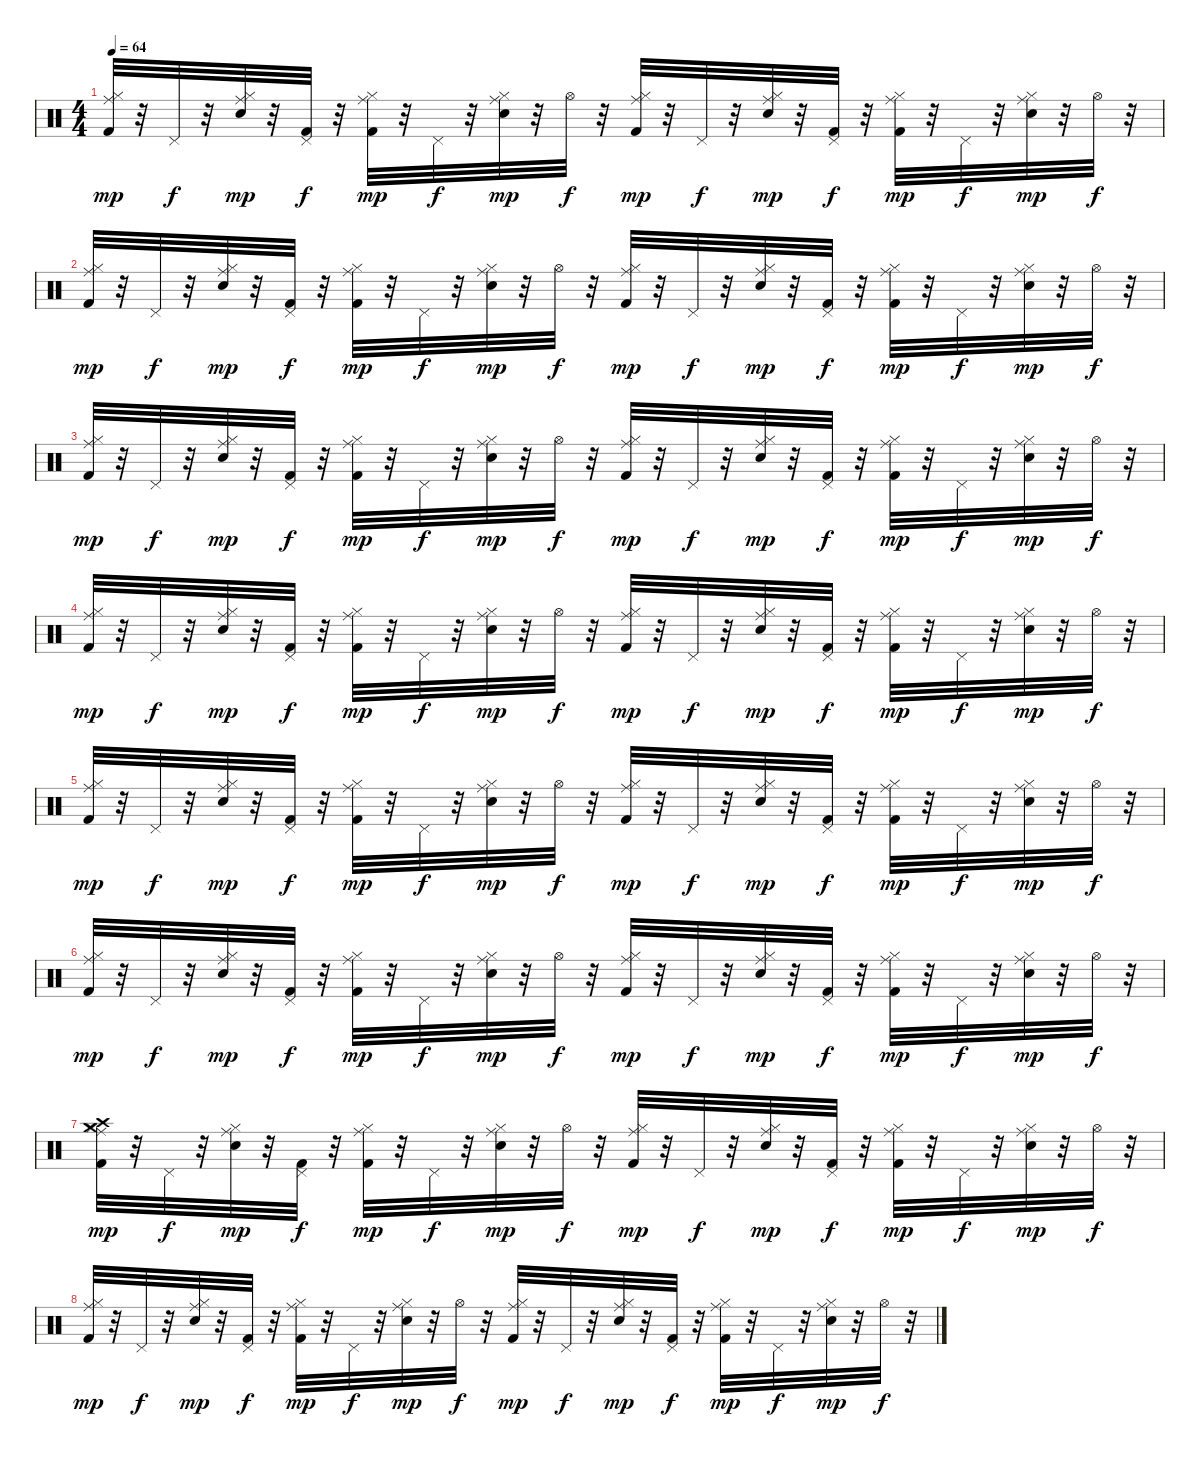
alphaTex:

\track "" {instrument percussion}
\staff {score}
\articulation defaults
\ts (4 4)
\tempo 64
\clef neutral
\ks c
("Ride (middle)" "Hi-Hat (closed)" "Kick (hit) 2").32{dy mp} r.32 "Pedal Hi-Hat (hit)".32{dy f} r.32 ("Ride (middle)" "Hi-Hat (closed)" "Snare (hit) 2").32{dy mp} r.32 ("Pedal Hi-Hat (hit)" "Kick (hit) 2").32{dy f} r.32 ("Ride (middle)" "Hi-Hat (closed)" "Kick (hit) 2").32{dy mp} r.32 "Pedal Hi-Hat (hit)".32{dy f} r.32 ("Snare (hit) 2" "Ride (middle)" "Hi-Hat (closed)").32{dy mp} r.32 "Hi-Hat (open)".32{dy f} r.32 ("Kick (hit) 2" "Hi-Hat (closed)" "Ride (middle)").32{dy mp} r.32 "Pedal Hi-Hat (hit)".32{dy f} r.32 ("Snare (hit) 2" "Hi-Hat (closed)" "Ride (middle)").32{dy mp} r.32 ("Kick (hit) 2" "Pedal Hi-Hat (hit)").32{dy f} r.32 ("Kick (hit) 2" "Hi-Hat (closed)" "Ride (middle)").32{dy mp} r.32 "Pedal Hi-Hat (hit)".32{dy f} r.32 ("Snare (hit) 2" "Hi-Hat (closed)" "Ride (middle)").32{dy mp} r.32 "Hi-Hat (open)".32{dy f} r.32 |
("Ride (middle)" "Hi-Hat (closed)" "Kick (hit) 2").32{dy mp} r.32 "Pedal Hi-Hat (hit)".32{dy f} r.32 ("Ride (middle)" "Hi-Hat (closed)" "Snare (hit) 2").32{dy mp} r.32 ("Pedal Hi-Hat (hit)" "Kick (hit) 2").32{dy f} r.32 ("Ride (middle)" "Hi-Hat (closed)" "Kick (hit) 2").32{dy mp} r.32 "Pedal Hi-Hat (hit)".32{dy f} r.32 ("Snare (hit) 2" "Ride (middle)" "Hi-Hat (closed)").32{dy mp} r.32 "Hi-Hat (open)".32{dy f} r.32 ("Kick (hit) 2" "Hi-Hat (closed)" "Ride (middle)").32{dy mp} r.32 "Pedal Hi-Hat (hit)".32{dy f} r.32 ("Snare (hit) 2" "Hi-Hat (closed)" "Ride (middle)").32{dy mp} r.32 ("Kick (hit) 2" "Pedal Hi-Hat (hit)").32{dy f} r.32 ("Kick (hit) 2" "Hi-Hat (closed)" "Ride (middle)").32{dy mp} r.32 "Pedal Hi-Hat (hit)".32{dy f} r.32 ("Snare (hit) 2" "Hi-Hat (closed)" "Ride (middle)").32{dy mp} r.32 "Hi-Hat (open)".32{dy f} r.32 |
("Ride (middle)" "Hi-Hat (closed)" "Kick (hit) 2").32{dy mp} r.32 "Pedal Hi-Hat (hit)".32{dy f} r.32 ("Ride (middle)" "Hi-Hat (closed)" "Snare (hit) 2").32{dy mp} r.32 ("Pedal Hi-Hat (hit)" "Kick (hit) 2").32{dy f} r.32 ("Ride (middle)" "Hi-Hat (closed)" "Kick (hit) 2").32{dy mp} r.32 "Pedal Hi-Hat (hit)".32{dy f} r.32 ("Snare (hit) 2" "Ride (middle)" "Hi-Hat (closed)").32{dy mp} r.32 "Hi-Hat (open)".32{dy f} r.32 ("Kick (hit) 2" "Hi-Hat (closed)" "Ride (middle)").32{dy mp} r.32 "Pedal Hi-Hat (hit)".32{dy f} r.32 ("Snare (hit) 2" "Hi-Hat (closed)" "Ride (middle)").32{dy mp} r.32 ("Kick (hit) 2" "Pedal Hi-Hat (hit)").32{dy f} r.32 ("Kick (hit) 2" "Hi-Hat (closed)" "Ride (middle)").32{dy mp} r.32 "Pedal Hi-Hat (hit)".32{dy f} r.32 ("Snare (hit) 2" "Hi-Hat (closed)" "Ride (middle)").32{dy mp} r.32 "Hi-Hat (open)".32{dy f} r.32 |
("Ride (middle)" "Hi-Hat (closed)" "Kick (hit) 2").32{dy mp} r.32 "Pedal Hi-Hat (hit)".32{dy f} r.32 ("Ride (middle)" "Hi-Hat (closed)" "Snare (hit) 2").32{dy mp} r.32 ("Pedal Hi-Hat (hit)" "Kick (hit) 2").32{dy f} r.32 ("Ride (middle)" "Hi-Hat (closed)" "Kick (hit) 2").32{dy mp} r.32 "Pedal Hi-Hat (hit)".32{dy f} r.32 ("Snare (hit) 2" "Ride (middle)" "Hi-Hat (closed)").32{dy mp} r.32 "Hi-Hat (open)".32{dy f} r.32 ("Kick (hit) 2" "Hi-Hat (closed)" "Ride (middle)").32{dy mp} r.32 "Pedal Hi-Hat (hit)".32{dy f} r.32 ("Snare (hit) 2" "Hi-Hat (closed)" "Ride (middle)").32{dy mp} r.32 ("Kick (hit) 2" "Pedal Hi-Hat (hit)").32{dy f} r.32 ("Kick (hit) 2" "Hi-Hat (closed)" "Ride (middle)").32{dy mp} r.32 "Pedal Hi-Hat (hit)".32{dy f} r.32 ("Snare (hit) 2" "Hi-Hat (closed)" "Ride (middle)").32{dy mp} r.32 "Hi-Hat (open)".32{dy f} r.32 |
("Ride (middle)" "Hi-Hat (closed)" "Kick (hit) 2").32{dy mp} r.32 "Pedal Hi-Hat (hit)".32{dy f} r.32 ("Ride (middle)" "Hi-Hat (closed)" "Snare (hit) 2").32{dy mp} r.32 ("Pedal Hi-Hat (hit)" "Kick (hit) 2").32{dy f} r.32 ("Ride (middle)" "Hi-Hat (closed)" "Kick (hit) 2").32{dy mp} r.32 "Pedal Hi-Hat (hit)".32{dy f} r.32 ("Snare (hit) 2" "Ride (middle)" "Hi-Hat (closed)").32{dy mp} r.32 "Hi-Hat (open)".32{dy f} r.32 ("Kick (hit) 2" "Hi-Hat (closed)" "Ride (middle)").32{dy mp} r.32 "Pedal Hi-Hat (hit)".32{dy f} r.32 ("Snare (hit) 2" "Hi-Hat (closed)" "Ride (middle)").32{dy mp} r.32 ("Kick (hit) 2" "Pedal Hi-Hat (hit)").32{dy f} r.32 ("Kick (hit) 2" "Hi-Hat (closed)" "Ride (middle)").32{dy mp} r.32 "Pedal Hi-Hat (hit)".32{dy f} r.32 ("Snare (hit) 2" "Hi-Hat (closed)" "Ride (middle)").32{dy mp} r.32 "Hi-Hat (open)".32{dy f} r.32 |
("Ride (middle)" "Hi-Hat (closed)" "Kick (hit) 2").32{dy mp} r.32 "Pedal Hi-Hat (hit)".32{dy f} r.32 ("Ride (middle)" "Hi-Hat (closed)" "Snare (hit) 2").32{dy mp} r.32 ("Pedal Hi-Hat (hit)" "Kick (hit) 2").32{dy f} r.32 ("Ride (middle)" "Hi-Hat (closed)" "Kick (hit) 2").32{dy mp} r.32 "Pedal Hi-Hat (hit)".32{dy f} r.32 ("Snare (hit) 2" "Ride (middle)" "Hi-Hat (closed)").32{dy mp} r.32 "Hi-Hat (open)".32{dy f} r.32 ("Kick (hit) 2" "Hi-Hat (closed)" "Ride (middle)").32{dy mp} r.32 "Pedal Hi-Hat (hit)".32{dy f} r.32 ("Snare (hit) 2" "Hi-Hat (closed)" "Ride (middle)").32{dy mp} r.32 ("Kick (hit) 2" "Pedal Hi-Hat (hit)").32{dy f} r.32 ("Kick (hit) 2" "Hi-Hat (closed)" "Ride (middle)").32{dy mp} r.32 "Pedal Hi-Hat (hit)".32{dy f} r.32 ("Snare (hit) 2" "Hi-Hat (closed)" "Ride (middle)").32{dy mp} r.32 "Hi-Hat (open)".32{dy f} r.32 |
("Crash medium (hit)" "Crash high (hit)" "Ride (middle)" "Hi-Hat (closed)" "Kick (hit) 2").32{dy mp} r.32 "Pedal Hi-Hat (hit)".32{dy f} r.32 ("Ride (middle)" "Hi-Hat (closed)" "Snare (hit) 2").32{dy mp} r.32 ("Pedal Hi-Hat (hit)" "Kick (hit) 2").32{dy f} r.32 ("Ride (middle)" "Hi-Hat (closed)" "Kick (hit) 2").32{dy mp} r.32 "Pedal Hi-Hat (hit)".32{dy f} r.32 ("Snare (hit) 2" "Ride (middle)" "Hi-Hat (closed)").32{dy mp} r.32 "Hi-Hat (open)".32{dy f} r.32 ("Kick (hit) 2" "Hi-Hat (closed)" "Ride (middle)").32{dy mp} r.32 "Pedal Hi-Hat (hit)".32{dy f} r.32 ("Snare (hit) 2" "Hi-Hat (closed)" "Ride (middle)").32{dy mp} r.32 ("Kick (hit) 2" "Pedal Hi-Hat (hit)").32{dy f} r.32 ("Kick (hit) 2" "Hi-Hat (closed)" "Ride (middle)").32{dy mp} r.32 "Pedal Hi-Hat (hit)".32{dy f} r.32 ("Snare (hit) 2" "Hi-Hat (closed)" "Ride (middle)").32{dy mp} r.32 "Hi-Hat (open)".32{dy f} r.32 |
("Ride (middle)" "Hi-Hat (closed)" "Kick (hit) 2").32{dy mp} r.32 "Pedal Hi-Hat (hit)".32{dy f} r.32 ("Ride (middle)" "Hi-Hat (closed)" "Snare (hit) 2").32{dy mp} r.32 ("Pedal Hi-Hat (hit)" "Kick (hit) 2").32{dy f} r.32 ("Ride (middle)" "Hi-Hat (closed)" "Kick (hit) 2").32{dy mp} r.32 "Pedal Hi-Hat (hit)".32{dy f} r.32 ("Snare (hit) 2" "Ride (middle)" "Hi-Hat (closed)").32{dy mp} r.32 "Hi-Hat (open)".32{dy f} r.32 ("Kick (hit) 2" "Hi-Hat (closed)" "Ride (middle)").32{dy mp} r.32 "Pedal Hi-Hat (hit)".32{dy f} r.32 ("Snare (hit) 2" "Hi-Hat (closed)" "Ride (middle)").32{dy mp} r.32 ("Kick (hit) 2" "Pedal Hi-Hat (hit)").32{dy f} r.32 ("Kick (hit) 2" "Hi-Hat (closed)" "Ride (middle)").32{dy mp} r.32 "Pedal Hi-Hat (hit)".32{dy f} r.32 ("Snare (hit) 2" "Hi-Hat (closed)" "Ride (middle)").32{dy mp} r.32 "Hi-Hat (open)".32{dy f} r.32
